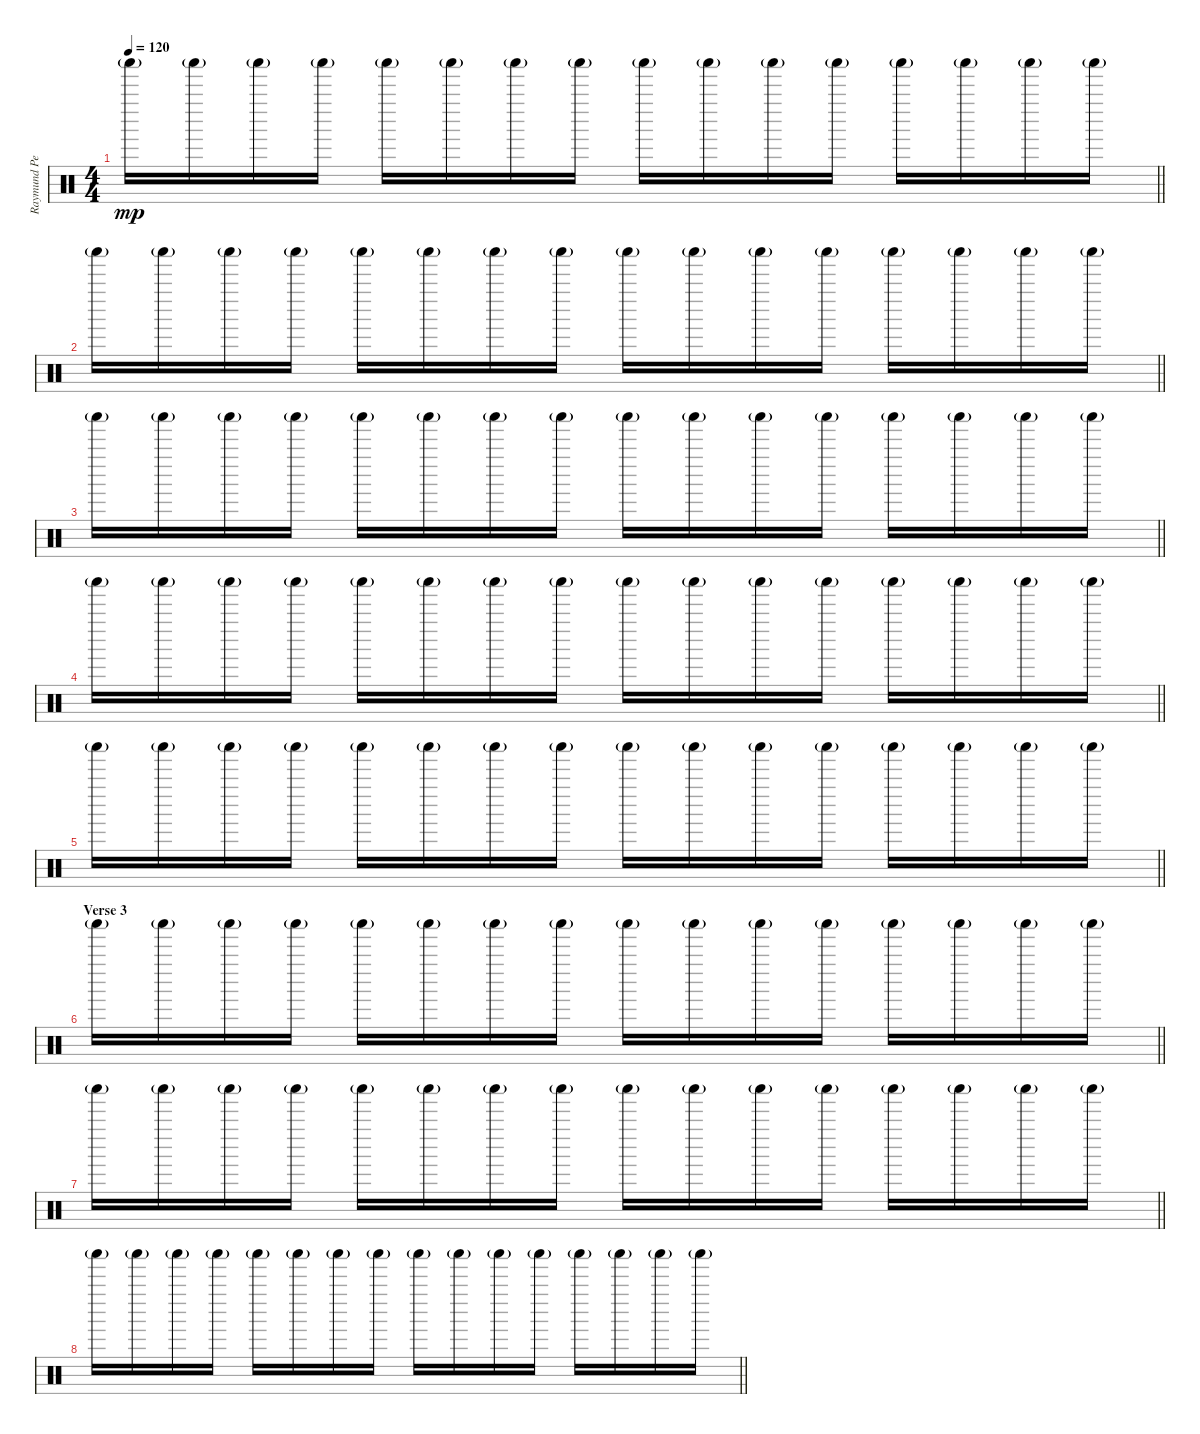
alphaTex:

\track ("Raymund Percussion" "Raymund Pe") {instrument percussion}
\staff {score}
\articulation defaults
\ts (4 4)
\tempo 120
\clef neutral
\barLineRight lightlight
\ks c "Shaker (hit)"{g}.16{dy mp} "Shaker (hit)"{g}.16 "Shaker (hit)"{g}.16 "Shaker (hit)"{g}.16 "Shaker (hit)"{g}.16 "Shaker (hit)"{g}.16 "Shaker (hit)"{g}.16 "Shaker (hit)"{g}.16 "Shaker (hit)"{g}.16 "Shaker (hit)"{g}.16 "Shaker (hit)"{g}.16 "Shaker (hit)"{g}.16 "Shaker (hit)"{g}.16 "Shaker (hit)"{g}.16 "Shaker (hit)"{g}.16 "Shaker (hit)"{g}.16
|
\barLineRight lightlight "Shaker (hit)"{g}.16 "Shaker (hit)"{g}.16 "Shaker (hit)"{g}.16 "Shaker (hit)"{g}.16 "Shaker (hit)"{g}.16 "Shaker (hit)"{g}.16 "Shaker (hit)"{g}.16 "Shaker (hit)"{g}.16 "Shaker (hit)"{g}.16 "Shaker (hit)"{g}.16 "Shaker (hit)"{g}.16 "Shaker (hit)"{g}.16 "Shaker (hit)"{g}.16 "Shaker (hit)"{g}.16 "Shaker (hit)"{g}.16 "Shaker (hit)"{g}.16
|
\barLineRight lightlight "Shaker (hit)"{g}.16 "Shaker (hit)"{g}.16 "Shaker (hit)"{g}.16 "Shaker (hit)"{g}.16 "Shaker (hit)"{g}.16 "Shaker (hit)"{g}.16 "Shaker (hit)"{g}.16 "Shaker (hit)"{g}.16 "Shaker (hit)"{g}.16 "Shaker (hit)"{g}.16 "Shaker (hit)"{g}.16 "Shaker (hit)"{g}.16 "Shaker (hit)"{g}.16 "Shaker (hit)"{g}.16 "Shaker (hit)"{g}.16 "Shaker (hit)"{g}.16
|
\barLineRight lightlight "Shaker (hit)"{g}.16 "Shaker (hit)"{g}.16 "Shaker (hit)"{g}.16 "Shaker (hit)"{g}.16 "Shaker (hit)"{g}.16 "Shaker (hit)"{g}.16 "Shaker (hit)"{g}.16 "Shaker (hit)"{g}.16 "Shaker (hit)"{g}.16 "Shaker (hit)"{g}.16 "Shaker (hit)"{g}.16 "Shaker (hit)"{g}.16 "Shaker (hit)"{g}.16 "Shaker (hit)"{g}.16 "Shaker (hit)"{g}.16 "Shaker (hit)"{g}.16
|
\barLineRight lightlight "Shaker (hit)"{g}.16 "Shaker (hit)"{g}.16 "Shaker (hit)"{g}.16 "Shaker (hit)"{g}.16 "Shaker (hit)"{g}.16 "Shaker (hit)"{g}.16 "Shaker (hit)"{g}.16 "Shaker (hit)"{g}.16 "Shaker (hit)"{g}.16 "Shaker (hit)"{g}.16 "Shaker (hit)"{g}.16 "Shaker (hit)"{g}.16 "Shaker (hit)"{g}.16 "Shaker (hit)"{g}.16 "Shaker (hit)"{g}.16 "Shaker (hit)"{g}.16
|
\section ("" "Verse 3")
\barLineRight lightlight "Shaker (hit)"{g}.16 "Shaker (hit)"{g}.16 "Shaker (hit)"{g}.16 "Shaker (hit)"{g}.16 "Shaker (hit)"{g}.16 "Shaker (hit)"{g}.16 "Shaker (hit)"{g}.16 "Shaker (hit)"{g}.16 "Shaker (hit)"{g}.16 "Shaker (hit)"{g}.16 "Shaker (hit)"{g}.16 "Shaker (hit)"{g}.16 "Shaker (hit)"{g}.16 "Shaker (hit)"{g}.16 "Shaker (hit)"{g}.16 "Shaker (hit)"{g}.16
|
\barLineRight lightlight "Shaker (hit)"{g}.16 "Shaker (hit)"{g}.16 "Shaker (hit)"{g}.16 "Shaker (hit)"{g}.16 "Shaker (hit)"{g}.16 "Shaker (hit)"{g}.16 "Shaker (hit)"{g}.16 "Shaker (hit)"{g}.16 "Shaker (hit)"{g}.16 "Shaker (hit)"{g}.16 "Shaker (hit)"{g}.16 "Shaker (hit)"{g}.16 "Shaker (hit)"{g}.16 "Shaker (hit)"{g}.16 "Shaker (hit)"{g}.16 "Shaker (hit)"{g}.16
|
\barLineRight lightlight "Shaker (hit)"{g}.16 "Shaker (hit)"{g}.16 "Shaker (hit)"{g}.16 "Shaker (hit)"{g}.16 "Shaker (hit)"{g}.16 "Shaker (hit)"{g}.16 "Shaker (hit)"{g}.16 "Shaker (hit)"{g}.16 "Shaker (hit)"{g}.16 "Shaker (hit)"{g}.16 "Shaker (hit)"{g}.16 "Shaker (hit)"{g}.16 "Shaker (hit)"{g}.16 "Shaker (hit)"{g}.16 "Shaker (hit)"{g}.16 "Shaker (hit)"{g}.16
